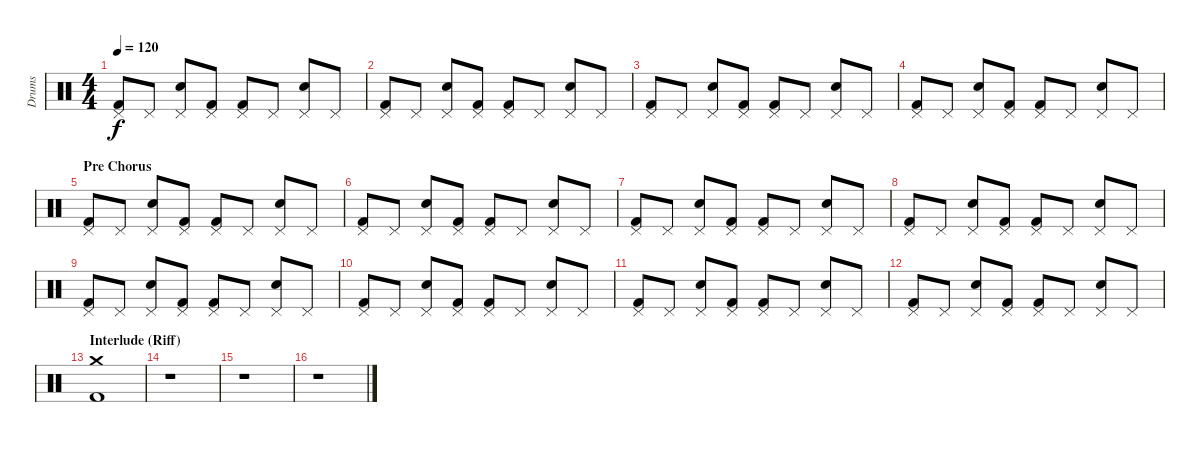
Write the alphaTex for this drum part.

\track ("Drums" "Drums") {instrument percussion}
\staff {score}
\articulation defaults
\ts (4 4)
\tempo 120
\clef neutral
\ks c
("Pedal Hi-Hat (hit)" "Kick (hit) 2").8{dy f} "Pedal Hi-Hat (hit)".8 ("Pedal Hi-Hat (hit)" "Electric Snare (hit)").8 ("Pedal Hi-Hat (hit)" "Kick (hit) 2").8 ("Pedal Hi-Hat (hit)" "Kick (hit) 2").8 "Pedal Hi-Hat (hit)".8 ("Pedal Hi-Hat (hit)" "Electric Snare (hit)").8 "Pedal Hi-Hat (hit)".8 |
("Pedal Hi-Hat (hit)" "Kick (hit) 2").8 "Pedal Hi-Hat (hit)".8 ("Pedal Hi-Hat (hit)" "Electric Snare (hit)").8 ("Pedal Hi-Hat (hit)" "Kick (hit) 2").8 ("Pedal Hi-Hat (hit)" "Kick (hit) 2").8 "Pedal Hi-Hat (hit)".8 ("Pedal Hi-Hat (hit)" "Electric Snare (hit)").8 "Pedal Hi-Hat (hit)".8 |
("Pedal Hi-Hat (hit)" "Kick (hit) 2").8 "Pedal Hi-Hat (hit)".8 ("Pedal Hi-Hat (hit)" "Electric Snare (hit)").8 ("Pedal Hi-Hat (hit)" "Kick (hit) 2").8 ("Pedal Hi-Hat (hit)" "Kick (hit) 2").8 "Pedal Hi-Hat (hit)".8 ("Pedal Hi-Hat (hit)" "Electric Snare (hit)").8 "Pedal Hi-Hat (hit)".8 |
("Pedal Hi-Hat (hit)" "Kick (hit) 2").8 "Pedal Hi-Hat (hit)".8 ("Pedal Hi-Hat (hit)" "Electric Snare (hit)").8 ("Pedal Hi-Hat (hit)" "Kick (hit) 2").8 ("Pedal Hi-Hat (hit)" "Kick (hit) 2").8 "Pedal Hi-Hat (hit)".8 ("Pedal Hi-Hat (hit)" "Electric Snare (hit)").8 "Pedal Hi-Hat (hit)".8 |
\section ("" "Pre Chorus")
("Pedal Hi-Hat (hit)" "Kick (hit) 2").8 "Pedal Hi-Hat (hit)".8 ("Pedal Hi-Hat (hit)" "Electric Snare (hit)").8 ("Pedal Hi-Hat (hit)" "Kick (hit) 2").8 ("Pedal Hi-Hat (hit)" "Kick (hit) 2").8 "Pedal Hi-Hat (hit)".8 ("Pedal Hi-Hat (hit)" "Electric Snare (hit)").8 "Pedal Hi-Hat (hit)".8 |
("Pedal Hi-Hat (hit)" "Kick (hit) 2").8 "Pedal Hi-Hat (hit)".8 ("Pedal Hi-Hat (hit)" "Electric Snare (hit)").8 ("Pedal Hi-Hat (hit)" "Kick (hit) 2").8 ("Pedal Hi-Hat (hit)" "Kick (hit) 2").8 "Pedal Hi-Hat (hit)".8 ("Pedal Hi-Hat (hit)" "Electric Snare (hit)").8 "Pedal Hi-Hat (hit)".8 |
("Pedal Hi-Hat (hit)" "Kick (hit) 2").8 "Pedal Hi-Hat (hit)".8 ("Pedal Hi-Hat (hit)" "Electric Snare (hit)").8 ("Pedal Hi-Hat (hit)" "Kick (hit) 2").8 ("Pedal Hi-Hat (hit)" "Kick (hit) 2").8 "Pedal Hi-Hat (hit)".8 ("Pedal Hi-Hat (hit)" "Electric Snare (hit)").8 "Pedal Hi-Hat (hit)".8 |
("Pedal Hi-Hat (hit)" "Kick (hit) 2").8 "Pedal Hi-Hat (hit)".8 ("Pedal Hi-Hat (hit)" "Electric Snare (hit)").8 ("Pedal Hi-Hat (hit)" "Kick (hit) 2").8 ("Pedal Hi-Hat (hit)" "Kick (hit) 2").8 "Pedal Hi-Hat (hit)".8 ("Pedal Hi-Hat (hit)" "Electric Snare (hit)").8 "Pedal Hi-Hat (hit)".8 |
("Pedal Hi-Hat (hit)" "Kick (hit) 2").8 "Pedal Hi-Hat (hit)".8 ("Pedal Hi-Hat (hit)" "Electric Snare (hit)").8 ("Pedal Hi-Hat (hit)" "Kick (hit) 2").8 ("Pedal Hi-Hat (hit)" "Kick (hit) 2").8 "Pedal Hi-Hat (hit)".8 ("Pedal Hi-Hat (hit)" "Electric Snare (hit)").8 "Pedal Hi-Hat (hit)".8 |
("Pedal Hi-Hat (hit)" "Kick (hit) 2").8 "Pedal Hi-Hat (hit)".8 ("Pedal Hi-Hat (hit)" "Electric Snare (hit)").8 ("Pedal Hi-Hat (hit)" "Kick (hit) 2").8 ("Pedal Hi-Hat (hit)" "Kick (hit) 2").8 "Pedal Hi-Hat (hit)".8 ("Pedal Hi-Hat (hit)" "Electric Snare (hit)").8 "Pedal Hi-Hat (hit)".8 |
("Pedal Hi-Hat (hit)" "Kick (hit) 2").8 "Pedal Hi-Hat (hit)".8 ("Pedal Hi-Hat (hit)" "Electric Snare (hit)").8 ("Pedal Hi-Hat (hit)" "Kick (hit) 2").8 ("Pedal Hi-Hat (hit)" "Kick (hit) 2").8 "Pedal Hi-Hat (hit)".8 ("Pedal Hi-Hat (hit)" "Electric Snare (hit)").8 "Pedal Hi-Hat (hit)".8 |
("Pedal Hi-Hat (hit)" "Kick (hit) 2").8 "Pedal Hi-Hat (hit)".8 ("Pedal Hi-Hat (hit)" "Electric Snare (hit)").8 ("Pedal Hi-Hat (hit)" "Kick (hit) 2").8 ("Pedal Hi-Hat (hit)" "Kick (hit) 2").8 "Pedal Hi-Hat (hit)".8 ("Pedal Hi-Hat (hit)" "Electric Snare (hit)").8 "Pedal Hi-Hat (hit)".8 |
\section ("" "Interlude (Riff)")
("Crash medium (hit)" "Kick (hit) 2").1 |
r.1 |
r.1 |
r.1
